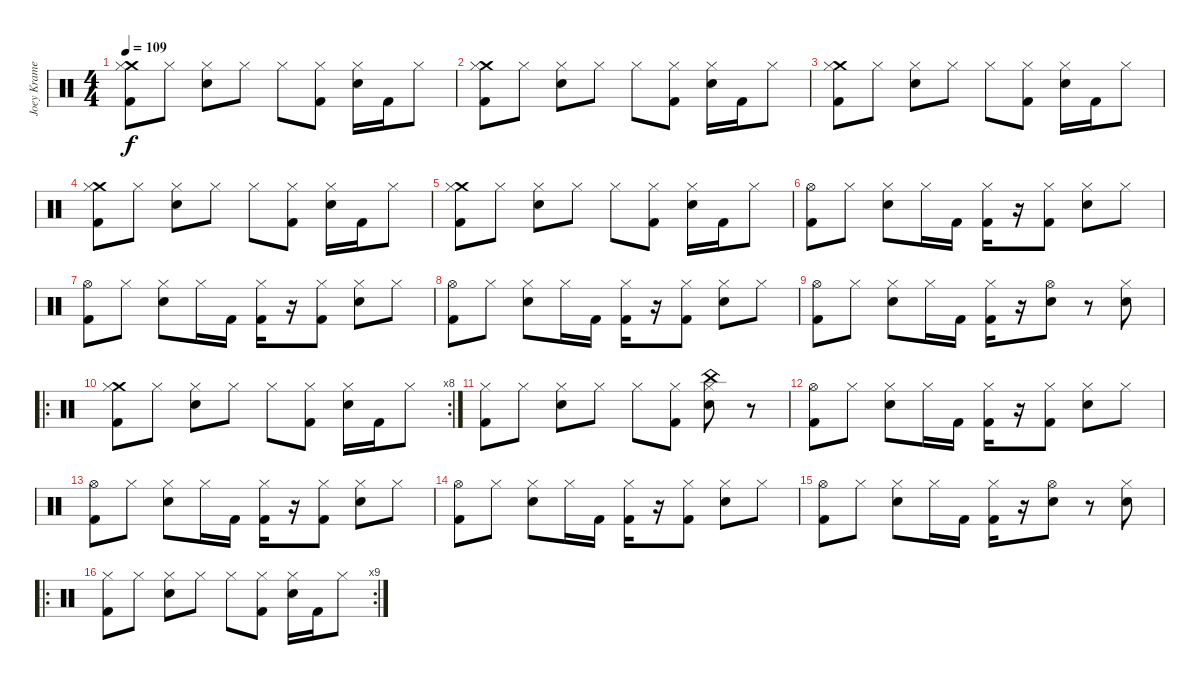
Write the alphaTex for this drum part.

\track ("Joey Kramer" "Joey Krame") {instrument percussion}
\staff {score}
\articulation defaults
\ts (4 4)
\tempo 109
\clef neutral
\ks c
("Crash medium (hit)" "Hi-Hat (closed)" "Kick (hit) 2").8{dy f} "Hi-Hat (closed)".8 ("Hi-Hat (closed)" "Snare (hit) 2").8 "Hi-Hat (closed)".8 "Hi-Hat (closed)".8 ("Hi-Hat (closed)" "Kick (hit) 2").8 ("Hi-Hat (closed)" "Snare (hit) 2").16 "Kick (hit) 2".16 "Hi-Hat (closed)".8 |
("Crash medium (hit)" "Hi-Hat (closed)" "Kick (hit) 2").8 "Hi-Hat (closed)".8 ("Hi-Hat (closed)" "Snare (hit) 2").8 "Hi-Hat (closed)".8 "Hi-Hat (closed)".8 ("Hi-Hat (closed)" "Kick (hit) 2").8 ("Hi-Hat (closed)" "Snare (hit) 2").16 "Kick (hit) 2".16 "Hi-Hat (closed)".8 |
("Crash medium (hit)" "Hi-Hat (closed)" "Kick (hit) 2").8 "Hi-Hat (closed)".8 ("Hi-Hat (closed)" "Snare (hit) 2").8 "Hi-Hat (closed)".8 "Hi-Hat (closed)".8 ("Hi-Hat (closed)" "Kick (hit) 2").8 ("Hi-Hat (closed)" "Snare (hit) 2").16 "Kick (hit) 2".16 "Hi-Hat (closed)".8 |
("Crash medium (hit)" "Hi-Hat (closed)" "Kick (hit) 2").8 "Hi-Hat (closed)".8 ("Hi-Hat (closed)" "Snare (hit) 2").8 "Hi-Hat (closed)".8 "Hi-Hat (closed)".8 ("Hi-Hat (closed)" "Kick (hit) 2").8 ("Hi-Hat (closed)" "Snare (hit) 2").16 "Kick (hit) 2".16 "Hi-Hat (closed)".8 |
("Crash medium (hit)" "Hi-Hat (closed)" "Kick (hit) 2").8 "Hi-Hat (closed)".8 ("Hi-Hat (closed)" "Snare (hit) 2").8 "Hi-Hat (closed)".8 "Hi-Hat (closed)".8 ("Hi-Hat (closed)" "Kick (hit) 2").8 ("Hi-Hat (closed)" "Snare (hit) 2").16 "Kick (hit) 2".16 "Hi-Hat (closed)".8 |
("Hi-Hat (open)" "Kick (hit) 2").8 "Hi-Hat (closed)".8 ("Hi-Hat (closed)" "Snare (hit) 2").8 "Hi-Hat (closed)".16 "Kick (hit) 2".16 ("Hi-Hat (closed)" "Kick (hit) 2").16 r.16 ("Hi-Hat (closed)" "Kick (hit) 2").8 ("Hi-Hat (closed)" "Snare (hit) 2").8 "Hi-Hat (closed)".8 |
("Hi-Hat (open)" "Kick (hit) 2").8 "Hi-Hat (closed)".8 ("Hi-Hat (closed)" "Snare (hit) 2").8 "Hi-Hat (closed)".16 "Kick (hit) 2".16 ("Hi-Hat (closed)" "Kick (hit) 2").16 r.16 ("Hi-Hat (closed)" "Kick (hit) 2").8 ("Hi-Hat (closed)" "Snare (hit) 2").8 "Hi-Hat (closed)".8 |
("Hi-Hat (open)" "Kick (hit) 2").8 "Hi-Hat (closed)".8 ("Hi-Hat (closed)" "Snare (hit) 2").8 "Hi-Hat (closed)".16 "Kick (hit) 2".16 ("Hi-Hat (closed)" "Kick (hit) 2").16 r.16 ("Hi-Hat (closed)" "Kick (hit) 2").8 ("Hi-Hat (closed)" "Snare (hit) 2").8 "Hi-Hat (closed)".8 |
("Hi-Hat (open)" "Kick (hit) 2").8 "Hi-Hat (closed)".8 ("Hi-Hat (closed)" "Snare (hit) 2").8 "Hi-Hat (closed)".16 "Kick (hit) 2".16 ("Hi-Hat (closed)" "Kick (hit) 2").16 r.16 ("Hi-Hat (open)" "Snare (hit) 2").8 r.8 ("Snare (hit) 2" "Hi-Hat (closed)").8 |
\ro
\rc 8
("Crash medium (hit)" "Hi-Hat (closed)" "Kick (hit) 2").8 "Hi-Hat (closed)".8 ("Hi-Hat (closed)" "Snare (hit) 2").8 "Hi-Hat (closed)".8 "Hi-Hat (closed)".8 ("Hi-Hat (closed)" "Kick (hit) 2").8 ("Hi-Hat (closed)" "Snare (hit) 2").16 "Kick (hit) 2".16 "Hi-Hat (closed)".8 |
("Hi-Hat (closed)" "Kick (hit) 2").8 "Hi-Hat (closed)".8 ("Hi-Hat (closed)" "Snare (hit) 2").8 "Hi-Hat (closed)".8 "Hi-Hat (closed)".8 ("Hi-Hat (closed)" "Kick (hit) 2").8 ("China (hit)" "Hi-Hat (closed)" "Snare (hit) 2").8 r.8 |
("Hi-Hat (open)" "Kick (hit) 2").8 "Hi-Hat (closed)".8 ("Hi-Hat (closed)" "Snare (hit) 2").8 "Hi-Hat (closed)".16 "Kick (hit) 2".16 ("Hi-Hat (closed)" "Kick (hit) 2").16 r.16 ("Hi-Hat (closed)" "Kick (hit) 2").8 ("Hi-Hat (closed)" "Snare (hit) 2").8 "Hi-Hat (closed)".8 |
("Hi-Hat (open)" "Kick (hit) 2").8 "Hi-Hat (closed)".8 ("Hi-Hat (closed)" "Snare (hit) 2").8 "Hi-Hat (closed)".16 "Kick (hit) 2".16 ("Hi-Hat (closed)" "Kick (hit) 2").16 r.16 ("Hi-Hat (closed)" "Kick (hit) 2").8 ("Hi-Hat (closed)" "Snare (hit) 2").8 "Hi-Hat (closed)".8 |
("Hi-Hat (open)" "Kick (hit) 2").8 "Hi-Hat (closed)".8 ("Hi-Hat (closed)" "Snare (hit) 2").8 "Hi-Hat (closed)".16 "Kick (hit) 2".16 ("Hi-Hat (closed)" "Kick (hit) 2").16 r.16 ("Hi-Hat (closed)" "Kick (hit) 2").8 ("Hi-Hat (closed)" "Snare (hit) 2").8 "Hi-Hat (closed)".8 |
("Hi-Hat (open)" "Kick (hit) 2").8 "Hi-Hat (closed)".8 ("Hi-Hat (closed)" "Snare (hit) 2").8 "Hi-Hat (closed)".16 "Kick (hit) 2".16 ("Hi-Hat (closed)" "Kick (hit) 2").16 r.16 ("Hi-Hat (open)" "Snare (hit) 2").8 r.8 ("Snare (hit) 2" "Hi-Hat (closed)").8 |
\ro
\rc 9
("Hi-Hat (closed)" "Kick (hit) 2").8 "Hi-Hat (closed)".8 ("Hi-Hat (closed)" "Snare (hit) 2").8 "Hi-Hat (closed)".8 "Hi-Hat (closed)".8 ("Hi-Hat (closed)" "Kick (hit) 2").8 ("Hi-Hat (closed)" "Snare (hit) 2").16 "Kick (hit) 2".16 "Hi-Hat (closed)".8
